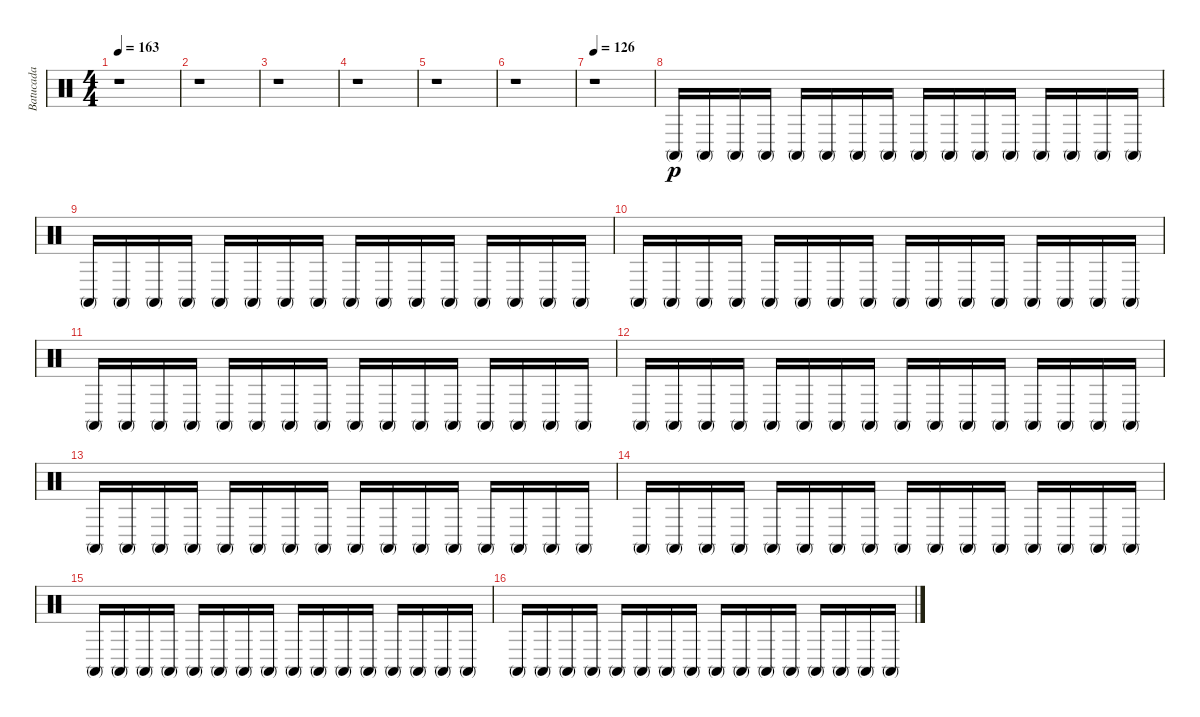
\track ("Batucada" "Batucada") {instrument percussion}
\staff {score}
\articulation defaults
\ts (4 4)
\tempo 163
\clef neutral
\ks c
r.1{dy f} |
r.1 |
r.1 |
r.1 |
r.1 |
r.1 |
\tempo 126
r.1 |
"Conga high (mute)".16{dy p} "Conga high (mute)".16 "Conga high (mute)".16 "Conga high (mute)".16 "Conga high (mute)".16 "Conga high (mute)".16 "Conga high (mute)".16 "Conga high (mute)".16 "Conga high (mute)".16 "Conga high (mute)".16 "Conga high (mute)".16 "Conga high (mute)".16 "Conga high (mute)".16 "Conga high (mute)".16 "Conga high (mute)".16 "Conga high (mute)".16 |
"Conga high (mute)".16 "Conga high (mute)".16 "Conga high (mute)".16 "Conga high (mute)".16 "Conga high (mute)".16 "Conga high (mute)".16 "Conga high (mute)".16 "Conga high (mute)".16 "Conga high (mute)".16 "Conga high (mute)".16 "Conga high (mute)".16 "Conga high (mute)".16 "Conga high (mute)".16 "Conga high (mute)".16 "Conga high (mute)".16 "Conga high (mute)".16 |
"Conga high (mute)".16 "Conga high (mute)".16 "Conga high (mute)".16 "Conga high (mute)".16 "Conga high (mute)".16 "Conga high (mute)".16 "Conga high (mute)".16 "Conga high (mute)".16 "Conga high (mute)".16 "Conga high (mute)".16 "Conga high (mute)".16 "Conga high (mute)".16 "Conga high (mute)".16 "Conga high (mute)".16 "Conga high (mute)".16 "Conga high (mute)".16 |
"Conga high (mute)".16 "Conga high (mute)".16 "Conga high (mute)".16 "Conga high (mute)".16 "Conga high (mute)".16 "Conga high (mute)".16 "Conga high (mute)".16 "Conga high (mute)".16 "Conga high (mute)".16 "Conga high (mute)".16 "Conga high (mute)".16 "Conga high (mute)".16 "Conga high (mute)".16 "Conga high (mute)".16 "Conga high (mute)".16 "Conga high (mute)".16 |
"Conga high (mute)".16 "Conga high (mute)".16 "Conga high (mute)".16 "Conga high (mute)".16 "Conga high (mute)".16 "Conga high (mute)".16 "Conga high (mute)".16 "Conga high (mute)".16 "Conga high (mute)".16 "Conga high (mute)".16 "Conga high (mute)".16 "Conga high (mute)".16 "Conga high (mute)".16 "Conga high (mute)".16 "Conga high (mute)".16 "Conga high (mute)".16 |
"Conga high (mute)".16 "Conga high (mute)".16 "Conga high (mute)".16 "Conga high (mute)".16 "Conga high (mute)".16 "Conga high (mute)".16 "Conga high (mute)".16 "Conga high (mute)".16 "Conga high (mute)".16 "Conga high (mute)".16 "Conga high (mute)".16 "Conga high (mute)".16 "Conga high (mute)".16 "Conga high (mute)".16 "Conga high (mute)".16 "Conga high (mute)".16 |
"Conga high (mute)".16 "Conga high (mute)".16 "Conga high (mute)".16 "Conga high (mute)".16 "Conga high (mute)".16 "Conga high (mute)".16 "Conga high (mute)".16 "Conga high (mute)".16 "Conga high (mute)".16 "Conga high (mute)".16 "Conga high (mute)".16 "Conga high (mute)".16 "Conga high (mute)".16 "Conga high (mute)".16 "Conga high (mute)".16 "Conga high (mute)".16 |
"Conga high (mute)".16 "Conga high (mute)".16 "Conga high (mute)".16 "Conga high (mute)".16 "Conga high (mute)".16 "Conga high (mute)".16 "Conga high (mute)".16 "Conga high (mute)".16 "Conga high (mute)".16 "Conga high (mute)".16 "Conga high (mute)".16 "Conga high (mute)".16 "Conga high (mute)".16 "Conga high (mute)".16 "Conga high (mute)".16 "Conga high (mute)".16 |
"Conga high (mute)".16 "Conga high (mute)".16 "Conga high (mute)".16 "Conga high (mute)".16 "Conga high (mute)".16 "Conga high (mute)".16 "Conga high (mute)".16 "Conga high (mute)".16 "Conga high (mute)".16 "Conga high (mute)".16 "Conga high (mute)".16 "Conga high (mute)".16 "Conga high (mute)".16 "Conga high (mute)".16 "Conga high (mute)".16 "Conga high (mute)".16
